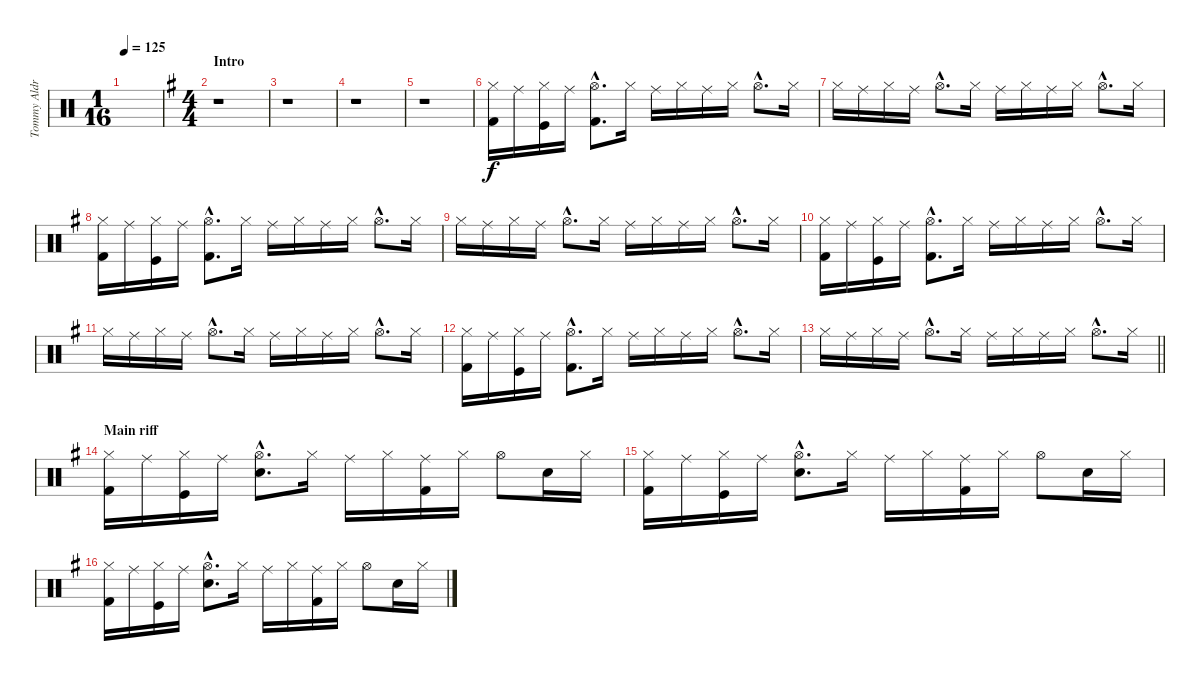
\track ("Tommy Aldridge" "Tommy Aldr") {instrument percussion}
\staff {score}
\articulation defaults
\ts (1 16)
\tempo 125
\clef neutral
\ks c
|
\ts (4 4)
\section ("" "Intro")
\ks eminor
r.1 |
r.1 |
r.1 |
r.1 |
("Hi-Hat (closed)" "Kick (hit) 2").16 "Ride (middle)".16 ("Hi-Hat (closed)" "Kick (hit)").16 "Ride (middle)".16 ("Hi-Hat (open)"{hac} "Kick (hit) 2"{hac}).8{d} "Hi-Hat (closed)".16 "Ride (middle)".16 "Hi-Hat (closed)".16 "Ride (middle)".16 "Hi-Hat (closed)".16 "Hi-Hat (open)"{hac}.8{d} "Hi-Hat (closed)".16 |
"Hi-Hat (closed)".16 "Ride (middle)".16 "Hi-Hat (closed)".16 "Ride (middle)".16 "Hi-Hat (open)"{hac}.8{d} "Hi-Hat (closed)".16 "Ride (middle)".16 "Hi-Hat (closed)".16 "Ride (middle)".16 "Hi-Hat (closed)".16 "Hi-Hat (open)"{hac}.8{d} "Hi-Hat (closed)".16 |
("Hi-Hat (closed)" "Kick (hit) 2").16 "Ride (middle)".16 ("Hi-Hat (closed)" "Kick (hit)").16 "Ride (middle)".16 ("Hi-Hat (open)"{hac} "Kick (hit) 2"{hac}).8{d} "Hi-Hat (closed)".16 "Ride (middle)".16 "Hi-Hat (closed)".16 "Ride (middle)".16 "Hi-Hat (closed)".16 "Hi-Hat (open)"{hac}.8{d} "Hi-Hat (closed)".16 |
"Hi-Hat (closed)".16 "Ride (middle)".16 "Hi-Hat (closed)".16 "Ride (middle)".16 "Hi-Hat (open)"{hac}.8{d} "Hi-Hat (closed)".16 "Ride (middle)".16 "Hi-Hat (closed)".16 "Ride (middle)".16 "Hi-Hat (closed)".16 "Hi-Hat (open)"{hac}.8{d} "Hi-Hat (closed)".16 |
("Hi-Hat (closed)" "Kick (hit) 2").16 "Ride (middle)".16 ("Hi-Hat (closed)" "Kick (hit)").16 "Ride (middle)".16 ("Hi-Hat (open)"{hac} "Kick (hit) 2"{hac}).8{d} "Hi-Hat (closed)".16 "Ride (middle)".16 "Hi-Hat (closed)".16 "Ride (middle)".16 "Hi-Hat (closed)".16 "Hi-Hat (open)"{hac}.8{d} "Hi-Hat (closed)".16 |
"Hi-Hat (closed)".16 "Ride (middle)".16 "Hi-Hat (closed)".16 "Ride (middle)".16 "Hi-Hat (open)"{hac}.8{d} "Hi-Hat (closed)".16 "Ride (middle)".16 "Hi-Hat (closed)".16 "Ride (middle)".16 "Hi-Hat (closed)".16 "Hi-Hat (open)"{hac}.8{d} "Hi-Hat (closed)".16 |
("Hi-Hat (closed)" "Kick (hit) 2").16 "Ride (middle)".16 ("Hi-Hat (closed)" "Kick (hit)").16 "Ride (middle)".16 ("Hi-Hat (open)"{hac} "Kick (hit) 2"{hac}).8{d} "Hi-Hat (closed)".16 "Ride (middle)".16 "Hi-Hat (closed)".16 "Ride (middle)".16 "Hi-Hat (closed)".16 "Hi-Hat (open)"{hac}.8{d} "Hi-Hat (closed)".16 |
\barLineRight lightlight "Hi-Hat (closed)".16 "Ride (middle)".16 "Hi-Hat (closed)".16 "Ride (middle)".16 "Hi-Hat (open)"{hac}.8{d} "Hi-Hat (closed)".16 "Ride (middle)".16 "Hi-Hat (closed)".16 "Ride (middle)".16 "Hi-Hat (closed)".16 "Hi-Hat (open)"{hac}.8{d} "Hi-Hat (closed)".16
|
\section ("" "Main riff")
("Hi-Hat (closed)" "Kick (hit) 2").16 "Ride (middle)".16 ("Hi-Hat (closed)" "Kick (hit)").16 "Ride (middle)".16 ("Hi-Hat (open)"{hac} "Snare (hit) 2"{hac}).8{d} "Hi-Hat (closed)".16 "Ride (middle)".16 "Hi-Hat (closed)".16 ("Ride (middle)" "Kick (hit) 2").16 "Hi-Hat (closed)".16 "Hi-Hat (open)".8 "Snare (hit) 2".16 "Hi-Hat (closed)".16 |
("Hi-Hat (closed)" "Kick (hit) 2").16 "Ride (middle)".16 ("Hi-Hat (closed)" "Kick (hit)").16 "Ride (middle)".16 ("Hi-Hat (open)"{hac} "Snare (hit) 2"{hac}).8{d} "Hi-Hat (closed)".16 "Ride (middle)".16 "Hi-Hat (closed)".16 ("Ride (middle)" "Kick (hit) 2").16 "Hi-Hat (closed)".16 "Hi-Hat (open)".8 "Snare (hit) 2".16 "Hi-Hat (closed)".16 |
("Hi-Hat (closed)" "Kick (hit) 2").16 "Ride (middle)".16 ("Hi-Hat (closed)" "Kick (hit)").16 "Ride (middle)".16 ("Hi-Hat (open)"{hac} "Snare (hit) 2"{hac}).8{d} "Hi-Hat (closed)".16 "Ride (middle)".16 "Hi-Hat (closed)".16 ("Ride (middle)" "Kick (hit) 2").16 "Hi-Hat (closed)".16 "Hi-Hat (open)".8 "Snare (hit) 2".16 "Hi-Hat (closed)".16
